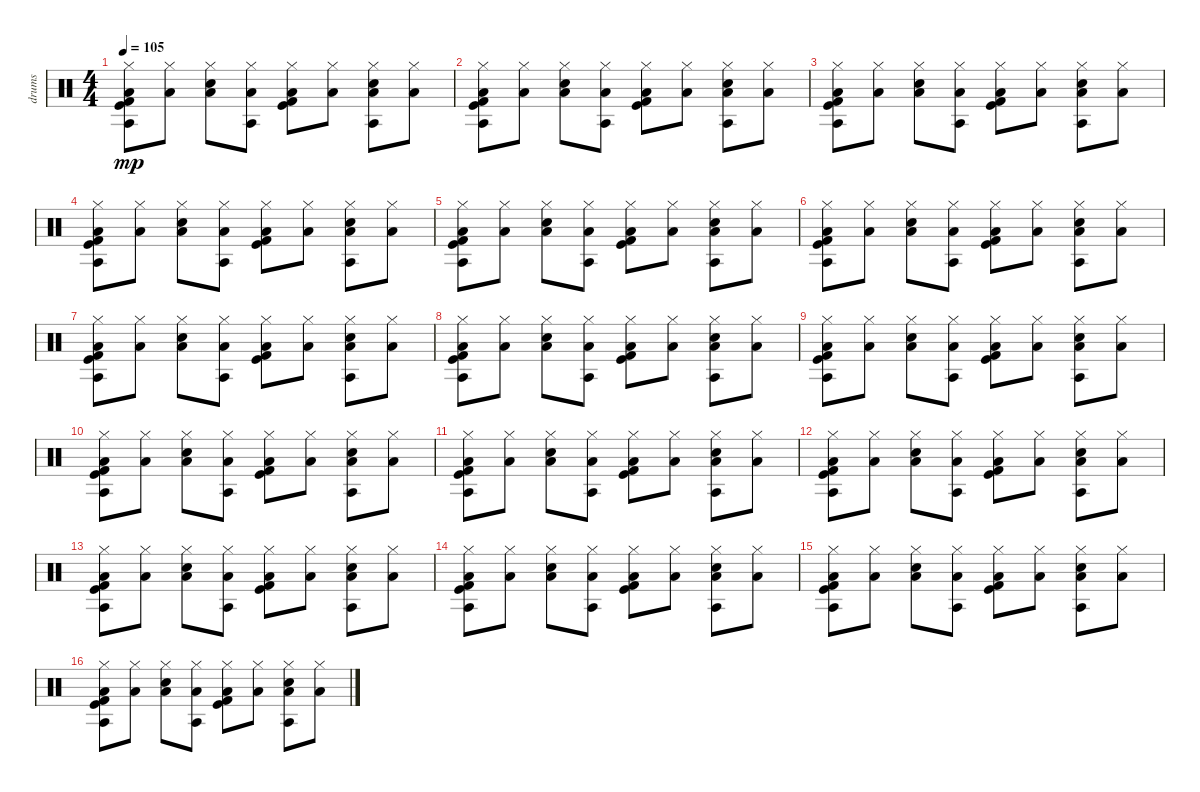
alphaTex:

\track ("drums" "drums") {instrument percussion}
\staff {score}
\articulation defaults
\ts (4 4)
\tempo 105
\clef neutral
\ks c
("Hi-Hat (closed)" "Agogo tow (hit)" "Kick (hit)" "Kick (hit) 2" "Low Floor Tom (hit)").8{dy mp} ("Hi-Hat (closed)" "Low Floor Tom (hit)").8 ("Electric Snare (hit)" "Hi-Hat (closed)" "Low Floor Tom (hit)").8 ("Hi-Hat (closed)" "Agogo tow (hit)" "Low Floor Tom (hit)").8 ("Kick (hit)" "Hi-Hat (closed)" "Kick (hit) 2" "Low Floor Tom (hit)").8 ("Hi-Hat (closed)" "Low Floor Tom (hit)").8 ("Agogo tow (hit)" "Hi-Hat (closed)" "Electric Snare (hit)" "Low Floor Tom (hit)").8 ("Hi-Hat (closed)" "Low Floor Tom (hit)").8 |
("Kick (hit)" "Kick (hit) 2" "Agogo tow (hit)" "Hi-Hat (closed)" "Low Floor Tom (hit)").8 ("Hi-Hat (closed)" "Low Floor Tom (hit)").8 ("Hi-Hat (closed)" "Electric Snare (hit)" "Low Floor Tom (hit)").8 ("Agogo tow (hit)" "Hi-Hat (closed)" "Low Floor Tom (hit)").8 ("Kick (hit) 2" "Kick (hit)" "Hi-Hat (closed)" "Low Floor Tom (hit)").8 ("Hi-Hat (closed)" "Low Floor Tom (hit)").8 ("Agogo tow (hit)" "Hi-Hat (closed)" "Electric Snare (hit)" "Low Floor Tom (hit)").8 ("Hi-Hat (closed)" "Low Floor Tom (hit)").8 |
("Kick (hit)" "Kick (hit) 2" "Hi-Hat (closed)" "Agogo tow (hit)" "Low Floor Tom (hit)").8 ("Hi-Hat (closed)" "Low Floor Tom (hit)").8 ("Hi-Hat (closed)" "Electric Snare (hit)" "Low Floor Tom (hit)").8 ("Hi-Hat (closed)" "Agogo tow (hit)" "Low Floor Tom (hit)").8 ("Kick (hit)" "Kick (hit) 2" "Hi-Hat (closed)" "Low Floor Tom (hit)").8 ("Hi-Hat (closed)" "Low Floor Tom (hit)").8 ("Hi-Hat (closed)" "Agogo tow (hit)" "Electric Snare (hit)" "Low Floor Tom (hit)").8 ("Hi-Hat (closed)" "Low Floor Tom (hit)").8 |
("Kick (hit) 2" "Kick (hit)" "Agogo tow (hit)" "Hi-Hat (closed)" "Low Floor Tom (hit)").8 ("Hi-Hat (closed)" "Low Floor Tom (hit)").8 ("Hi-Hat (closed)" "Electric Snare (hit)" "Low Floor Tom (hit)").8 ("Agogo tow (hit)" "Hi-Hat (closed)" "Low Floor Tom (hit)").8 ("Kick (hit)" "Kick (hit) 2" "Hi-Hat (closed)" "Low Floor Tom (hit)").8 ("Hi-Hat (closed)" "Low Floor Tom (hit)").8 ("Agogo tow (hit)" "Hi-Hat (closed)" "Electric Snare (hit)" "Low Floor Tom (hit)").8 ("Hi-Hat (closed)" "Low Floor Tom (hit)").8 |
("Kick (hit)" "Kick (hit) 2" "Agogo tow (hit)" "Hi-Hat (closed)" "Low Floor Tom (hit)").8 ("Hi-Hat (closed)" "Low Floor Tom (hit)").8 ("Hi-Hat (closed)" "Electric Snare (hit)" "Low Floor Tom (hit)").8 ("Agogo tow (hit)" "Hi-Hat (closed)" "Low Floor Tom (hit)").8 ("Kick (hit) 2" "Kick (hit)" "Hi-Hat (closed)" "Low Floor Tom (hit)").8 ("Hi-Hat (closed)" "Low Floor Tom (hit)").8 ("Agogo tow (hit)" "Hi-Hat (closed)" "Electric Snare (hit)" "Low Floor Tom (hit)").8 ("Hi-Hat (closed)" "Low Floor Tom (hit)").8 |
("Kick (hit)" "Kick (hit) 2" "Agogo tow (hit)" "Hi-Hat (closed)" "Low Floor Tom (hit)").8 ("Hi-Hat (closed)" "Low Floor Tom (hit)").8 ("Hi-Hat (closed)" "Electric Snare (hit)" "Low Floor Tom (hit)").8 ("Agogo tow (hit)" "Hi-Hat (closed)" "Low Floor Tom (hit)").8 ("Kick (hit)" "Kick (hit) 2" "Hi-Hat (closed)" "Low Floor Tom (hit)").8 ("Hi-Hat (closed)" "Low Floor Tom (hit)").8 ("Agogo tow (hit)" "Hi-Hat (closed)" "Electric Snare (hit)" "Low Floor Tom (hit)").8 ("Hi-Hat (closed)" "Low Floor Tom (hit)").8 |
("Kick (hit) 2" "Kick (hit)" "Hi-Hat (closed)" "Agogo tow (hit)" "Low Floor Tom (hit)").8 ("Hi-Hat (closed)" "Low Floor Tom (hit)").8 ("Hi-Hat (closed)" "Electric Snare (hit)" "Low Floor Tom (hit)").8 ("Hi-Hat (closed)" "Agogo tow (hit)" "Low Floor Tom (hit)").8 ("Kick (hit)" "Kick (hit) 2" "Hi-Hat (closed)" "Low Floor Tom (hit)").8 ("Hi-Hat (closed)" "Low Floor Tom (hit)").8 ("Hi-Hat (closed)" "Agogo tow (hit)" "Electric Snare (hit)" "Low Floor Tom (hit)").8 ("Hi-Hat (closed)" "Low Floor Tom (hit)").8 |
("Kick (hit)" "Kick (hit) 2" "Agogo tow (hit)" "Hi-Hat (closed)" "Low Floor Tom (hit)").8 ("Hi-Hat (closed)" "Low Floor Tom (hit)").8 ("Hi-Hat (closed)" "Electric Snare (hit)" "Low Floor Tom (hit)").8 ("Agogo tow (hit)" "Hi-Hat (closed)" "Low Floor Tom (hit)").8 ("Kick (hit)" "Kick (hit) 2" "Hi-Hat (closed)" "Low Floor Tom (hit)").8 ("Hi-Hat (closed)" "Low Floor Tom (hit)").8 ("Agogo tow (hit)" "Hi-Hat (closed)" "Electric Snare (hit)" "Low Floor Tom (hit)").8 ("Hi-Hat (closed)" "Low Floor Tom (hit)").8 |
("Hi-Hat (closed)" "Agogo tow (hit)" "Kick (hit)" "Kick (hit) 2" "Low Floor Tom (hit)").8 ("Hi-Hat (closed)" "Low Floor Tom (hit)").8 ("Electric Snare (hit)" "Hi-Hat (closed)" "Low Floor Tom (hit)").8 ("Hi-Hat (closed)" "Agogo tow (hit)" "Low Floor Tom (hit)").8 ("Kick (hit)" "Hi-Hat (closed)" "Kick (hit) 2" "Low Floor Tom (hit)").8 ("Hi-Hat (closed)" "Low Floor Tom (hit)").8 ("Agogo tow (hit)" "Hi-Hat (closed)" "Electric Snare (hit)" "Low Floor Tom (hit)").8 ("Hi-Hat (closed)" "Low Floor Tom (hit)").8 |
("Kick (hit)" "Kick (hit) 2" "Agogo tow (hit)" "Hi-Hat (closed)" "Low Floor Tom (hit)").8 ("Hi-Hat (closed)" "Low Floor Tom (hit)").8 ("Hi-Hat (closed)" "Electric Snare (hit)" "Low Floor Tom (hit)").8 ("Agogo tow (hit)" "Hi-Hat (closed)" "Low Floor Tom (hit)").8 ("Kick (hit) 2" "Kick (hit)" "Hi-Hat (closed)" "Low Floor Tom (hit)").8 ("Hi-Hat (closed)" "Low Floor Tom (hit)").8 ("Agogo tow (hit)" "Hi-Hat (closed)" "Electric Snare (hit)" "Low Floor Tom (hit)").8 ("Hi-Hat (closed)" "Low Floor Tom (hit)").8 |
("Kick (hit)" "Kick (hit) 2" "Hi-Hat (closed)" "Agogo tow (hit)" "Low Floor Tom (hit)").8 ("Hi-Hat (closed)" "Low Floor Tom (hit)").8 ("Hi-Hat (closed)" "Electric Snare (hit)" "Low Floor Tom (hit)").8 ("Hi-Hat (closed)" "Agogo tow (hit)" "Low Floor Tom (hit)").8 ("Kick (hit)" "Kick (hit) 2" "Hi-Hat (closed)" "Low Floor Tom (hit)").8 ("Hi-Hat (closed)" "Low Floor Tom (hit)").8 ("Hi-Hat (closed)" "Agogo tow (hit)" "Electric Snare (hit)" "Low Floor Tom (hit)").8 ("Hi-Hat (closed)" "Low Floor Tom (hit)").8 |
("Kick (hit) 2" "Kick (hit)" "Agogo tow (hit)" "Hi-Hat (closed)" "Low Floor Tom (hit)").8 ("Hi-Hat (closed)" "Low Floor Tom (hit)").8 ("Hi-Hat (closed)" "Electric Snare (hit)" "Low Floor Tom (hit)").8 ("Agogo tow (hit)" "Hi-Hat (closed)" "Low Floor Tom (hit)").8 ("Kick (hit)" "Kick (hit) 2" "Hi-Hat (closed)" "Low Floor Tom (hit)").8 ("Hi-Hat (closed)" "Low Floor Tom (hit)").8 ("Agogo tow (hit)" "Hi-Hat (closed)" "Electric Snare (hit)" "Low Floor Tom (hit)").8 ("Hi-Hat (closed)" "Low Floor Tom (hit)").8 |
("Kick (hit)" "Kick (hit) 2" "Agogo tow (hit)" "Hi-Hat (closed)" "Low Floor Tom (hit)").8 ("Hi-Hat (closed)" "Low Floor Tom (hit)").8 ("Hi-Hat (closed)" "Electric Snare (hit)" "Low Floor Tom (hit)").8 ("Agogo tow (hit)" "Hi-Hat (closed)" "Low Floor Tom (hit)").8 ("Kick (hit) 2" "Kick (hit)" "Hi-Hat (closed)" "Low Floor Tom (hit)").8 ("Hi-Hat (closed)" "Low Floor Tom (hit)").8 ("Agogo tow (hit)" "Hi-Hat (closed)" "Electric Snare (hit)" "Low Floor Tom (hit)").8 ("Hi-Hat (closed)" "Low Floor Tom (hit)").8 |
("Kick (hit)" "Kick (hit) 2" "Agogo tow (hit)" "Hi-Hat (closed)" "Low Floor Tom (hit)").8 ("Hi-Hat (closed)" "Low Floor Tom (hit)").8 ("Hi-Hat (closed)" "Electric Snare (hit)" "Low Floor Tom (hit)").8 ("Agogo tow (hit)" "Hi-Hat (closed)" "Low Floor Tom (hit)").8 ("Kick (hit)" "Kick (hit) 2" "Hi-Hat (closed)" "Low Floor Tom (hit)").8 ("Hi-Hat (closed)" "Low Floor Tom (hit)").8 ("Agogo tow (hit)" "Hi-Hat (closed)" "Electric Snare (hit)" "Low Floor Tom (hit)").8 ("Hi-Hat (closed)" "Low Floor Tom (hit)").8 |
("Kick (hit) 2" "Kick (hit)" "Hi-Hat (closed)" "Agogo tow (hit)" "Low Floor Tom (hit)").8 ("Hi-Hat (closed)" "Low Floor Tom (hit)").8 ("Hi-Hat (closed)" "Electric Snare (hit)" "Low Floor Tom (hit)").8 ("Hi-Hat (closed)" "Agogo tow (hit)" "Low Floor Tom (hit)").8 ("Kick (hit)" "Kick (hit) 2" "Hi-Hat (closed)" "Low Floor Tom (hit)").8 ("Hi-Hat (closed)" "Low Floor Tom (hit)").8 ("Hi-Hat (closed)" "Agogo tow (hit)" "Electric Snare (hit)" "Low Floor Tom (hit)").8 ("Hi-Hat (closed)" "Low Floor Tom (hit)").8 |
("Kick (hit)" "Kick (hit) 2" "Agogo tow (hit)" "Hi-Hat (closed)" "Low Floor Tom (hit)").8 ("Hi-Hat (closed)" "Low Floor Tom (hit)").8 ("Hi-Hat (closed)" "Electric Snare (hit)" "Low Floor Tom (hit)").8 ("Agogo tow (hit)" "Hi-Hat (closed)" "Low Floor Tom (hit)").8 ("Kick (hit)" "Kick (hit) 2" "Hi-Hat (closed)" "Low Floor Tom (hit)").8 ("Hi-Hat (closed)" "Low Floor Tom (hit)").8 ("Agogo tow (hit)" "Hi-Hat (closed)" "Electric Snare (hit)" "Low Floor Tom (hit)").8 ("Hi-Hat (closed)" "Low Floor Tom (hit)").8
